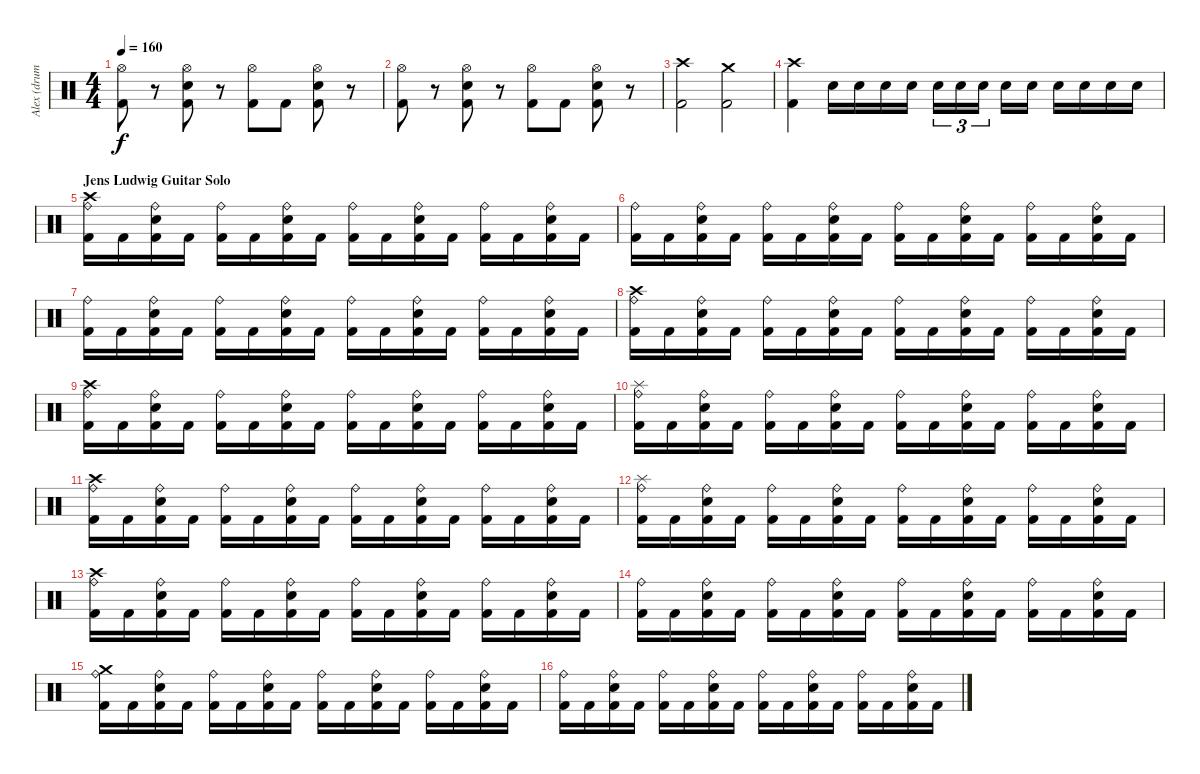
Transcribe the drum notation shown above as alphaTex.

\track ("Alex (drums)" "Alex (drum") {instrument percussion}
\staff {score}
\articulation defaults
\ts (4 4)
\tempo 160
\clef neutral
\ks c
("Hi-Hat (open)" "Kick (hit) 2").8{dy f} r.8 ("Hi-Hat (open)" "Snare (hit) 2" "Kick (hit) 2").8 r.8 ("Hi-Hat (open)" "Kick (hit) 2").8 "Kick (hit) 2".8 ("Hi-Hat (open)" "Snare (hit) 2" "Kick (hit) 2").8 r.8 |
("Hi-Hat (open)" "Kick (hit) 2").8 r.8 ("Hi-Hat (open)" "Snare (hit) 2" "Kick (hit) 2").8 r.8 ("Hi-Hat (open)" "Kick (hit) 2").8 "Kick (hit) 2".8 ("Hi-Hat (open)" "Snare (hit) 2" "Kick (hit) 2").8 r.8 |
("Kick (hit) 2" "Crash high (hit)").2 ("Kick (hit) 2" "Crash medium (hit)").2 |
("Kick (hit) 2" "Crash high (hit)").4 "Snare (hit) 2".16 "Snare (hit) 2".16 "Snare (hit) 2".16 "Snare (hit) 2".16 "Snare (hit) 2".16{tu (3 2)} "Snare (hit) 2".16{tu (3 2)} "Snare (hit) 2".16{tu (3 2)} "Snare (hit) 2".16 "Snare (hit) 2".16 "Snare (hit) 2".16 "Snare (hit) 2".16 "Snare (hit) 2".16 "Snare (hit) 2".16 |
\section ("" "Jens Ludwig Guitar Solo")
("Ride (bell)" "Kick (hit) 2" "Crash high (hit)").16 "Kick (hit) 2".16 ("Ride (bell)" "Snare (hit) 2" "Kick (hit) 2").16 "Kick (hit) 2".16 ("Ride (bell)" "Kick (hit) 2").16 "Kick (hit) 2".16 ("Ride (bell)" "Snare (hit) 2" "Kick (hit) 2").16 "Kick (hit) 2".16 ("Ride (bell)" "Kick (hit) 2").16 "Kick (hit) 2".16 ("Ride (bell)" "Snare (hit) 2" "Kick (hit) 2").16 "Kick (hit) 2".16 ("Ride (bell)" "Kick (hit) 2").16 "Kick (hit) 2".16 ("Ride (bell)" "Snare (hit) 2" "Kick (hit) 2").16 "Kick (hit) 2".16 |
("Ride (bell)" "Kick (hit) 2").16 "Kick (hit) 2".16 ("Ride (bell)" "Snare (hit) 2" "Kick (hit) 2").16 "Kick (hit) 2".16 ("Ride (bell)" "Kick (hit) 2").16 "Kick (hit) 2".16 ("Ride (bell)" "Snare (hit) 2" "Kick (hit) 2").16 "Kick (hit) 2".16 ("Ride (bell)" "Kick (hit) 2").16 "Kick (hit) 2".16 ("Ride (bell)" "Snare (hit) 2" "Kick (hit) 2").16 "Kick (hit) 2".16 ("Ride (bell)" "Kick (hit) 2").16 "Kick (hit) 2".16 ("Ride (bell)" "Snare (hit) 2" "Kick (hit) 2").16 "Kick (hit) 2".16 |
("Ride (bell)" "Kick (hit) 2").16 "Kick (hit) 2".16 ("Ride (bell)" "Snare (hit) 2" "Kick (hit) 2").16 "Kick (hit) 2".16 ("Ride (bell)" "Kick (hit) 2").16 "Kick (hit) 2".16 ("Ride (bell)" "Snare (hit) 2" "Kick (hit) 2").16 "Kick (hit) 2".16 ("Ride (bell)" "Kick (hit) 2").16 "Kick (hit) 2".16 ("Ride (bell)" "Snare (hit) 2" "Kick (hit) 2").16 "Kick (hit) 2".16 ("Ride (bell)" "Kick (hit) 2").16 "Kick (hit) 2".16 ("Ride (bell)" "Snare (hit) 2" "Kick (hit) 2").16 "Kick (hit) 2".16 |
("Ride (bell)" "Kick (hit) 2" "Crash high (hit)").16 "Kick (hit) 2".16 ("Ride (bell)" "Snare (hit) 2" "Kick (hit) 2").16 "Kick (hit) 2".16 ("Ride (bell)" "Kick (hit) 2").16 "Kick (hit) 2".16 ("Ride (bell)" "Snare (hit) 2" "Kick (hit) 2").16 "Kick (hit) 2".16 ("Ride (bell)" "Kick (hit) 2").16 "Kick (hit) 2".16 ("Ride (bell)" "Snare (hit) 2" "Kick (hit) 2").16 "Kick (hit) 2".16 ("Ride (bell)" "Kick (hit) 2").16 "Kick (hit) 2".16 ("Ride (bell)" "Snare (hit) 2" "Kick (hit) 2").16 "Kick (hit) 2".16 |
("Ride (bell)" "Kick (hit) 2" "Crash high (hit)").16 "Kick (hit) 2".16 ("Ride (bell)" "Snare (hit) 2" "Kick (hit) 2").16 "Kick (hit) 2".16 ("Ride (bell)" "Kick (hit) 2").16 "Kick (hit) 2".16 ("Ride (bell)" "Snare (hit) 2" "Kick (hit) 2").16 "Kick (hit) 2".16 ("Ride (bell)" "Kick (hit) 2").16 "Kick (hit) 2".16 ("Ride (bell)" "Snare (hit) 2" "Kick (hit) 2").16 "Kick (hit) 2".16 ("Ride (bell)" "Kick (hit) 2").16 "Kick (hit) 2".16 ("Ride (bell)" "Snare (hit) 2" "Kick (hit) 2").16 "Kick (hit) 2".16 |
("Ride (bell)" "Kick (hit) 2" "Splash (hit)").16 "Kick (hit) 2".16 ("Ride (bell)" "Snare (hit) 2" "Kick (hit) 2").16 "Kick (hit) 2".16 ("Ride (bell)" "Kick (hit) 2").16 "Kick (hit) 2".16 ("Ride (bell)" "Snare (hit) 2" "Kick (hit) 2").16 "Kick (hit) 2".16 ("Ride (bell)" "Kick (hit) 2").16 "Kick (hit) 2".16 ("Ride (bell)" "Snare (hit) 2" "Kick (hit) 2").16 "Kick (hit) 2".16 ("Ride (bell)" "Kick (hit) 2").16 "Kick (hit) 2".16 ("Ride (bell)" "Snare (hit) 2" "Kick (hit) 2").16 "Kick (hit) 2".16 |
("Ride (bell)" "Kick (hit) 2" "Crash high (hit)").16 "Kick (hit) 2".16 ("Ride (bell)" "Snare (hit) 2" "Kick (hit) 2").16 "Kick (hit) 2".16 ("Ride (bell)" "Kick (hit) 2").16 "Kick (hit) 2".16 ("Ride (bell)" "Snare (hit) 2" "Kick (hit) 2").16 "Kick (hit) 2".16 ("Ride (bell)" "Kick (hit) 2").16 "Kick (hit) 2".16 ("Ride (bell)" "Snare (hit) 2" "Kick (hit) 2").16 "Kick (hit) 2".16 ("Ride (bell)" "Kick (hit) 2").16 "Kick (hit) 2".16 ("Ride (bell)" "Snare (hit) 2" "Kick (hit) 2").16 "Kick (hit) 2".16 |
("Ride (bell)" "Kick (hit) 2" "Splash (hit)").16 "Kick (hit) 2".16 ("Ride (bell)" "Snare (hit) 2" "Kick (hit) 2").16 "Kick (hit) 2".16 ("Ride (bell)" "Kick (hit) 2").16 "Kick (hit) 2".16 ("Ride (bell)" "Snare (hit) 2" "Kick (hit) 2").16 "Kick (hit) 2".16 ("Ride (bell)" "Kick (hit) 2").16 "Kick (hit) 2".16 ("Ride (bell)" "Snare (hit) 2" "Kick (hit) 2").16 "Kick (hit) 2".16 ("Ride (bell)" "Kick (hit) 2").16 "Kick (hit) 2".16 ("Ride (bell)" "Snare (hit) 2" "Kick (hit) 2").16 "Kick (hit) 2".16 |
("Ride (bell)" "Kick (hit) 2" "Crash high (hit)").16 "Kick (hit) 2".16 ("Ride (bell)" "Snare (hit) 2" "Kick (hit) 2").16 "Kick (hit) 2".16 ("Ride (bell)" "Kick (hit) 2").16 "Kick (hit) 2".16 ("Ride (bell)" "Snare (hit) 2" "Kick (hit) 2").16 "Kick (hit) 2".16 ("Ride (bell)" "Kick (hit) 2").16 "Kick (hit) 2".16 ("Ride (bell)" "Snare (hit) 2" "Kick (hit) 2").16 "Kick (hit) 2".16 ("Ride (bell)" "Kick (hit) 2").16 "Kick (hit) 2".16 ("Ride (bell)" "Snare (hit) 2" "Kick (hit) 2").16 "Kick (hit) 2".16 |
("Ride (bell)" "Kick (hit) 2").16 "Kick (hit) 2".16 ("Ride (bell)" "Snare (hit) 2" "Kick (hit) 2").16 "Kick (hit) 2".16 ("Ride (bell)" "Kick (hit) 2").16 "Kick (hit) 2".16 ("Ride (bell)" "Snare (hit) 2" "Kick (hit) 2").16 "Kick (hit) 2".16 ("Ride (bell)" "Kick (hit) 2").16 "Kick (hit) 2".16 ("Ride (bell)" "Snare (hit) 2" "Kick (hit) 2").16 "Kick (hit) 2".16 ("Ride (bell)" "Kick (hit) 2").16 "Kick (hit) 2".16 ("Ride (bell)" "Snare (hit) 2" "Kick (hit) 2").16 "Kick (hit) 2".16 |
("Ride (bell)" "Kick (hit) 2" "Crash medium (hit)").16 "Kick (hit) 2".16 ("Ride (bell)" "Snare (hit) 2" "Kick (hit) 2").16 "Kick (hit) 2".16 ("Ride (bell)" "Kick (hit) 2").16 "Kick (hit) 2".16 ("Ride (bell)" "Snare (hit) 2" "Kick (hit) 2").16 "Kick (hit) 2".16 ("Ride (bell)" "Kick (hit) 2").16 "Kick (hit) 2".16 ("Ride (bell)" "Snare (hit) 2" "Kick (hit) 2").16 "Kick (hit) 2".16 ("Ride (bell)" "Kick (hit) 2").16 "Kick (hit) 2".16 ("Ride (bell)" "Snare (hit) 2" "Kick (hit) 2").16 "Kick (hit) 2".16 |
("Ride (bell)" "Kick (hit) 2").16 "Kick (hit) 2".16 ("Ride (bell)" "Snare (hit) 2" "Kick (hit) 2").16 "Kick (hit) 2".16 ("Ride (bell)" "Kick (hit) 2").16 "Kick (hit) 2".16 ("Ride (bell)" "Snare (hit) 2" "Kick (hit) 2").16 "Kick (hit) 2".16 ("Ride (bell)" "Kick (hit) 2").16 "Kick (hit) 2".16 ("Ride (bell)" "Snare (hit) 2" "Kick (hit) 2").16 "Kick (hit) 2".16 ("Ride (bell)" "Kick (hit) 2").16 "Kick (hit) 2".16 ("Ride (bell)" "Snare (hit) 2" "Kick (hit) 2").16 "Kick (hit) 2".16
